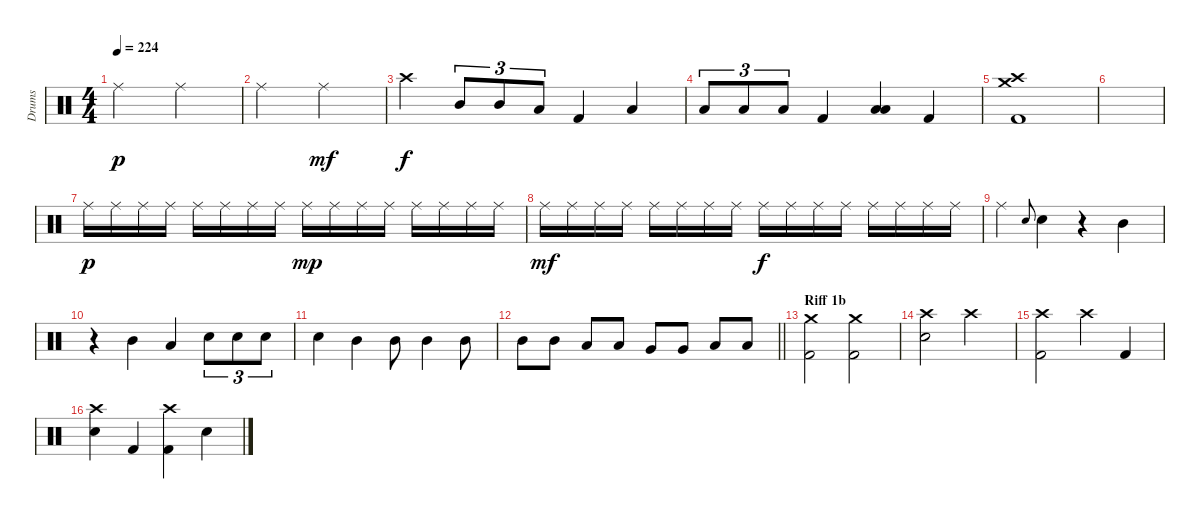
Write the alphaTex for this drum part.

\track ("Drums" "Drums") {instrument percussion}
\staff {score}
\articulation defaults
\ts (4 4)
\tempo 224
\clef neutral
\ks c "Ride (middle)".2{dy p} "Ride (middle)".2
|
"Ride (middle)".2 "Ride (middle)".2{dy mf} |
"Crash high (hit)".4{dy f} "Mid Tom (hit)".8{tu (3 2)} "Mid Tom (hit)".8{tu (3 2)} "Low Floor Tom (hit)".8{tu (3 2)} "Kick (hit) 2".4 "Low Tom (hit)".4 |
"Low Tom (hit)".8{tu (3 2)} "Low Tom (hit)".8{tu (3 2)} "Low Floor Tom (hit)".8{tu (3 2)} "Kick (hit) 2".4 ("Low Tom (hit)" "Low Floor Tom (hit)").4 "Kick (hit) 2".4 |
("Crash high (hit)" "Crash medium (hit)" "Kick (hit) 2").1 |
|
"Ride (middle)".16{dy p} "Ride (middle)".16 "Ride (middle)".16 "Ride (middle)".16 "Ride (middle)".16 "Ride (middle)".16 "Ride (middle)".16 "Ride (middle)".16 "Ride (middle)".16{dy mp} "Ride (middle)".16 "Ride (middle)".16 "Ride (middle)".16 "Ride (middle)".16 "Ride (middle)".16 "Ride (middle)".16 "Ride (middle)".16 |
"Ride (middle)".16{dy mf} "Ride (middle)".16 "Ride (middle)".16 "Ride (middle)".16 "Ride (middle)".16 "Ride (middle)".16 "Ride (middle)".16 "Ride (middle)".16 "Ride (middle)".16{dy f} "Ride (middle)".16 "Ride (middle)".16 "Ride (middle)".16 "Ride (middle)".16 "Ride (middle)".16 "Ride (middle)".16 "Ride (middle)".16 |
"Ride (middle)".4 "Electric Snare (hit)".8{gr onbeat} "Electric Snare (hit)".4 r.4 "Mid Tom (hit)".4 |
r.4 "Mid Tom (hit)".4 "Low Tom (hit)".4 "Electric Snare (hit)".8{tu (3 2)} "Electric Snare (hit)".8{tu (3 2)} "Electric Snare (hit)".8{tu (3 2)} |
"Electric Snare (hit)".4 "Mid Tom (hit)".4 "Mid Tom (hit)".8 "Mid Tom (hit)".4 "Mid Tom (hit)".8 |
\barLineRight lightlight "Mid Tom (hit)".8 "Mid Tom (hit)".8 "Low Tom (hit)".8 "Low Tom (hit)".8 "Very Low Tom (hit)".8 "Very Low Tom (hit)".8 "Low Floor Tom (hit)".8 "Low Floor Tom (hit)".8
|
\section ("" "Riff 1b")
("Kick (hit) 2" "Crash medium (hit)").2 ("Crash medium (hit)" "Kick (hit) 2").2 |
("Crash high (hit)" "Electric Snare (hit)").2 "Crash high (hit)".2 |
("Crash high (hit)" "Kick (hit) 2").2 "Crash high (hit)".4 "Kick (hit) 2".4 |
("Electric Snare (hit)" "Crash high (hit)").4 "Kick (hit) 2".4 ("Kick (hit) 2" "Crash high (hit)").4 "Electric Snare (hit)".4
